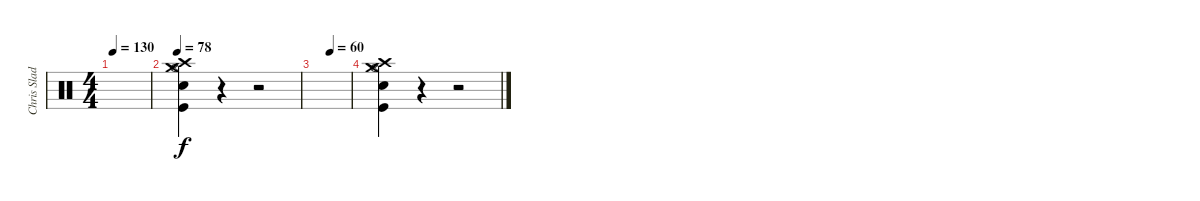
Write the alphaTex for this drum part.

\track ("Chris Slade" "Chris Slad") {instrument percussion}
\staff {score}
\articulation defaults
\ts (4 4)
\tempo 130
\clef neutral
\ks c
|
\tempo 78
("Snare (hit) 2" "Kick (hit)" "Hi-Hat (open)" "Crash high (hit)" "Crash medium (hit)").4 r.4 r.2 |
\tempo (60 0.4375)
|
("Snare (hit) 2" "Kick (hit)" "Hi-Hat (open)" "Crash high (hit)" "Crash medium (hit)").4 r.4 r.2
